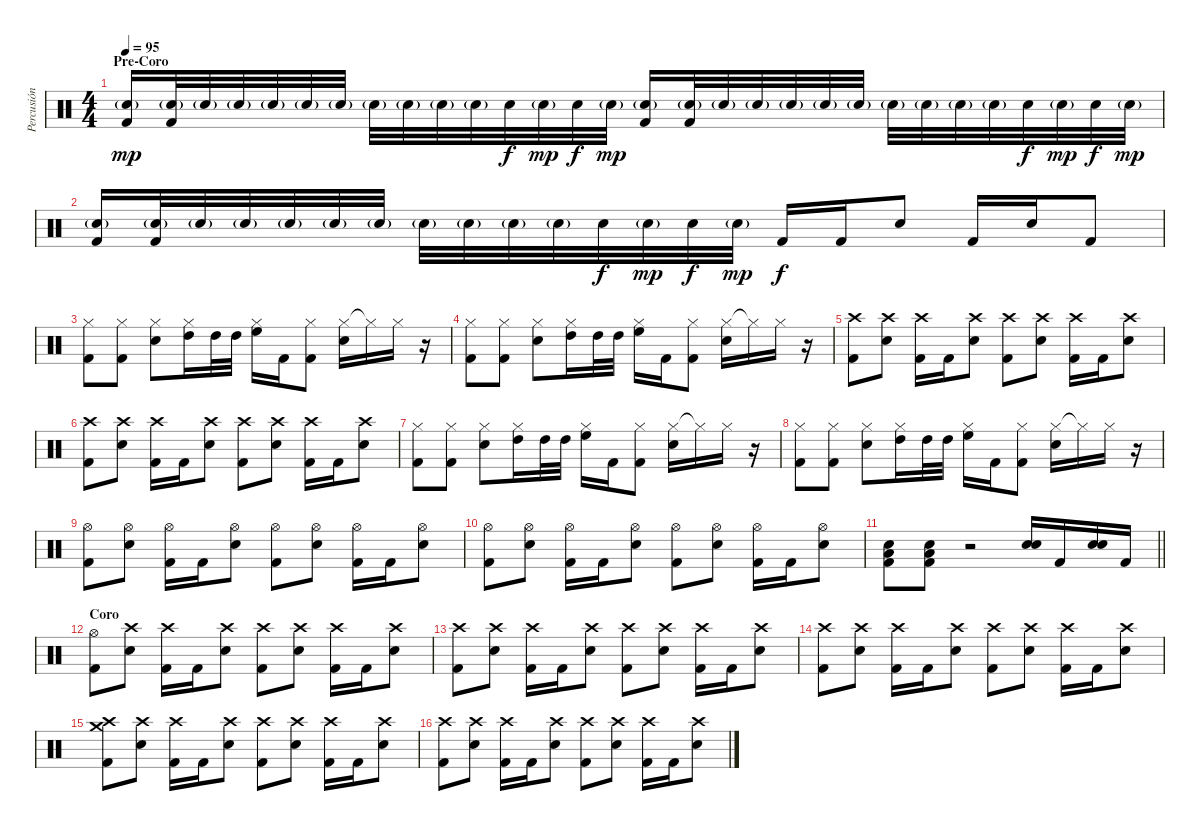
\track ("Percusión" "Percusión") {instrument percussion}
\staff {score}
\articulation defaults
\ts (4 4)
\section ("" "Pre-Coro")
\tempo 95
\clef neutral
\ks c
("Electric Snare (hit)"{g} "Kick (hit) 2").16{dy mp} ("Electric Snare (hit)"{g} "Kick (hit) 2").32 "Electric Snare (hit)"{g}.32 "Electric Snare (hit)"{g}.32 "Electric Snare (hit)"{g}.32 "Electric Snare (hit)"{g}.32 "Electric Snare (hit)"{g}.32 "Electric Snare (hit)"{g}.32 "Electric Snare (hit)"{g}.32 "Electric Snare (hit)"{g}.32 "Electric Snare (hit)"{g}.32 "Electric Snare (hit)".32{dy f} "Electric Snare (hit)"{g}.32{dy mp} "Electric Snare (hit)".32{dy f} "Electric Snare (hit)"{g}.32{dy mp} ("Electric Snare (hit)"{g} "Kick (hit) 2").16 ("Electric Snare (hit)"{g} "Kick (hit) 2").32 "Electric Snare (hit)"{g}.32 "Electric Snare (hit)"{g}.32 "Electric Snare (hit)"{g}.32 "Electric Snare (hit)"{g}.32 "Electric Snare (hit)"{g}.32 "Electric Snare (hit)"{g}.32 "Electric Snare (hit)"{g}.32 "Electric Snare (hit)"{g}.32 "Electric Snare (hit)"{g}.32 "Electric Snare (hit)".32{dy f} "Electric Snare (hit)"{g}.32{dy mp} "Electric Snare (hit)".32{dy f} "Electric Snare (hit)"{g}.32{dy mp} |
("Electric Snare (hit)"{g} "Kick (hit) 2").16 ("Electric Snare (hit)"{g} "Kick (hit) 2").32 "Electric Snare (hit)"{g}.32 "Electric Snare (hit)"{g}.32 "Electric Snare (hit)"{g}.32 "Electric Snare (hit)"{g}.32 "Electric Snare (hit)"{g}.32 "Electric Snare (hit)"{g}.32 "Electric Snare (hit)"{g}.32 "Electric Snare (hit)"{g}.32 "Electric Snare (hit)"{g}.32 "Electric Snare (hit)".32{dy f} "Electric Snare (hit)"{g}.32{dy mp} "Electric Snare (hit)".32{dy f} "Electric Snare (hit)"{g}.32{dy mp} "Kick (hit) 2".16{dy f} "Kick (hit) 2".16 "Electric Snare (hit)".8 "Kick (hit) 2".16 "Electric Snare (hit)".16 "Kick (hit) 2".8 |
("Hi-Hat (closed)" "Kick (hit) 2").8 ("Hi-Hat (closed)" "Kick (hit) 2").8 ("Hi-Hat (closed)" "Electric Snare (hit)").8 ("Hi-Hat (closed)" "High Tom (hit)").16 "High Tom (hit)".32 "High Tom (hit)".32 ("Hi-Hat (closed)" "High Floor Tom (hit)").16 "Kick (hit) 2".16 ("Hi-Hat (closed)" "Kick (hit) 2").8 ("Hi-Hat (closed)" "Electric Snare (hit)").16 "Hi-Hat (closed)"{t}.16 "Hi-Hat (closed)".16 r.16 |
("Hi-Hat (closed)" "Kick (hit) 2").8 ("Hi-Hat (closed)" "Kick (hit) 2").8 ("Hi-Hat (closed)" "Electric Snare (hit)").8 ("Hi-Hat (closed)" "High Tom (hit)").16 "High Tom (hit)".32 "High Tom (hit)".32 ("Hi-Hat (closed)" "High Floor Tom (hit)").16 "Kick (hit) 2".16 ("Hi-Hat (closed)" "Kick (hit) 2").8 ("Hi-Hat (closed)" "Electric Snare (hit)").16 "Hi-Hat (closed)"{t}.16 "Hi-Hat (closed)".16 r.16 |
("Crash high (hit)" "Kick (hit) 2").8 ("Crash high (hit)" "Electric Snare (hit)").8 ("Crash high (hit)" "Kick (hit) 2").16 "Kick (hit) 2".16 ("Crash high (hit)" "Electric Snare (hit)").8 ("Crash high (hit)" "Kick (hit) 2").8 ("Crash high (hit)" "Electric Snare (hit)").8 ("Crash high (hit)" "Kick (hit) 2").16 "Kick (hit) 2".16 ("Crash high (hit)" "Electric Snare (hit)").8 |
("Crash high (hit)" "Kick (hit) 2").8 ("Crash high (hit)" "Electric Snare (hit)").8 ("Crash high (hit)" "Kick (hit) 2").16 "Kick (hit) 2".16 ("Crash high (hit)" "Electric Snare (hit)").8 ("Crash high (hit)" "Kick (hit) 2").8 ("Crash high (hit)" "Electric Snare (hit)").8 ("Crash high (hit)" "Kick (hit) 2").16 "Kick (hit) 2".16 ("Crash high (hit)" "Electric Snare (hit)").8 |
("Hi-Hat (closed)" "Kick (hit) 2").8 ("Hi-Hat (closed)" "Kick (hit) 2").8 ("Hi-Hat (closed)" "Electric Snare (hit)").8 ("Hi-Hat (closed)" "High Tom (hit)").16 "High Tom (hit)".32 "High Tom (hit)".32 ("Hi-Hat (closed)" "High Floor Tom (hit)").16 "Kick (hit) 2".16 ("Hi-Hat (closed)" "Kick (hit) 2").8 ("Hi-Hat (closed)" "Electric Snare (hit)").16 "Hi-Hat (closed)"{t}.16 "Hi-Hat (closed)".16 r.16 |
("Hi-Hat (closed)" "Kick (hit) 2").8 ("Hi-Hat (closed)" "Kick (hit) 2").8 ("Hi-Hat (closed)" "Electric Snare (hit)").8 ("Hi-Hat (closed)" "High Tom (hit)").16 "High Tom (hit)".32 "High Tom (hit)".32 ("Hi-Hat (closed)" "High Floor Tom (hit)").16 "Kick (hit) 2".16 ("Hi-Hat (closed)" "Kick (hit) 2").8 ("Hi-Hat (closed)" "Electric Snare (hit)").16 "Hi-Hat (closed)"{t}.16 "Hi-Hat (closed)".16 r.16 |
("Hi-Hat (open)" "Kick (hit) 2").8 ("Hi-Hat (open)" "Electric Snare (hit)").8 ("Hi-Hat (open)" "Kick (hit) 2").16 "Kick (hit) 2".16 ("Hi-Hat (open)" "Electric Snare (hit)").8 ("Hi-Hat (open)" "Kick (hit) 2").8 ("Hi-Hat (open)" "Electric Snare (hit)").8 ("Hi-Hat (open)" "Kick (hit) 2").16 "Kick (hit) 2".16 ("Hi-Hat (open)" "Electric Snare (hit)").8 |
("Hi-Hat (open)" "Kick (hit) 2").8 ("Hi-Hat (open)" "Electric Snare (hit)").8 ("Hi-Hat (open)" "Kick (hit) 2").16 "Kick (hit) 2".16 ("Hi-Hat (open)" "Electric Snare (hit)").8 ("Hi-Hat (open)" "Kick (hit) 2").8 ("Hi-Hat (open)" "Electric Snare (hit)").8 ("Hi-Hat (open)" "Kick (hit) 2").16 "Kick (hit) 2".16 ("Hi-Hat (open)" "Electric Snare (hit)").8 |
\barLineRight lightlight
("Kick (hit) 2" "Low Floor Tom (hit)" "Electric Snare (hit)").8 ("Kick (hit) 2" "Low Floor Tom (hit)" "Electric Snare (hit)").8 r.2 ("Electric Snare (hit)" "Electric Snare (hit)").16 "Kick (hit) 2".16 ("Electric Snare (hit)" "Electric Snare (hit)").16 "Kick (hit) 2".16 |
\section ("" "Coro")
("Hi-Hat (open)" "Kick (hit) 2").8 ("Crash high (hit)" "Electric Snare (hit)").8 ("Crash high (hit)" "Kick (hit) 2").16 "Kick (hit) 2".16 ("Crash high (hit)" "Electric Snare (hit)").8 ("Crash high (hit)" "Kick (hit) 2").8 ("Crash high (hit)" "Electric Snare (hit)").8 ("Crash high (hit)" "Kick (hit) 2").16 "Kick (hit) 2".16 ("Crash high (hit)" "Electric Snare (hit)").8 |
("Crash high (hit)" "Kick (hit) 2").8 ("Crash high (hit)" "Electric Snare (hit)").8 ("Crash high (hit)" "Kick (hit) 2").16 "Kick (hit) 2".16 ("Crash high (hit)" "Electric Snare (hit)").8 ("Crash high (hit)" "Kick (hit) 2").8 ("Crash high (hit)" "Electric Snare (hit)").8 ("Crash high (hit)" "Kick (hit) 2").16 "Kick (hit) 2".16 ("Crash high (hit)" "Electric Snare (hit)").8 |
("Crash high (hit)" "Kick (hit) 2").8 ("Crash high (hit)" "Electric Snare (hit)").8 ("Crash high (hit)" "Kick (hit) 2").16 "Kick (hit) 2".16 ("Crash high (hit)" "Electric Snare (hit)").8 ("Crash high (hit)" "Kick (hit) 2").8 ("Crash high (hit)" "Electric Snare (hit)").8 ("Crash high (hit)" "Kick (hit) 2").16 "Kick (hit) 2".16 ("Crash high (hit)" "Electric Snare (hit)").8 |
("Crash high (hit)" "Crash medium (hit)" "Kick (hit) 2").8 ("Crash high (hit)" "Electric Snare (hit)").8 ("Crash high (hit)" "Kick (hit) 2").16 "Kick (hit) 2".16 ("Crash high (hit)" "Electric Snare (hit)").8 ("Crash high (hit)" "Kick (hit) 2").8 ("Crash high (hit)" "Electric Snare (hit)").8 ("Crash high (hit)" "Kick (hit) 2").16 "Kick (hit) 2".16 ("Crash high (hit)" "Electric Snare (hit)").8 |
("Crash high (hit)" "Kick (hit) 2").8 ("Crash high (hit)" "Electric Snare (hit)").8 ("Crash high (hit)" "Kick (hit) 2").16 "Kick (hit) 2".16 ("Crash high (hit)" "Electric Snare (hit)").8 ("Crash high (hit)" "Kick (hit) 2").8 ("Crash high (hit)" "Electric Snare (hit)").8 ("Crash high (hit)" "Kick (hit) 2").16 "Kick (hit) 2".16 ("Crash high (hit)" "Electric Snare (hit)").8
